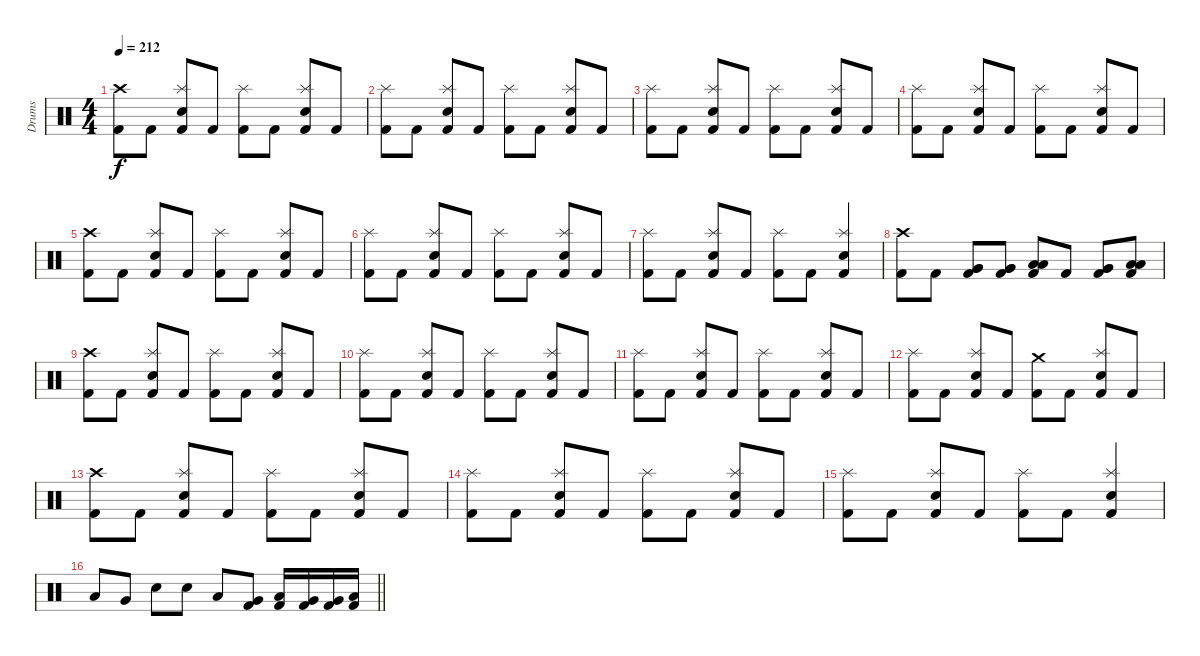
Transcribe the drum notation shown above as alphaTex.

\track ("Drums" "Drums") {instrument percussion}
\staff {score}
\articulation defaults
\ts (4 4)
\tempo 212
\clef neutral
\ks c
("Crash high (hit)" "Kick (hit) 2").8{dy f} "Kick (hit) 2".8 ("Splash (hit)" "Snare (hit) 2" "Kick (hit) 2").8 "Kick (hit) 2".8 ("Splash (hit)" "Kick (hit) 2").8 "Kick (hit) 2".8 ("Splash (hit)" "Snare (hit) 2" "Kick (hit) 2").8 "Kick (hit) 2".8 |
("Splash (hit)" "Kick (hit) 2").8 "Kick (hit) 2".8 ("Splash (hit)" "Snare (hit) 2" "Kick (hit) 2").8 "Kick (hit) 2".8 ("Splash (hit)" "Kick (hit) 2").8 "Kick (hit) 2".8 ("Splash (hit)" "Snare (hit) 2" "Kick (hit) 2").8 "Kick (hit) 2".8 |
("Splash (hit)" "Kick (hit) 2").8 "Kick (hit) 2".8 ("Splash (hit)" "Snare (hit) 2" "Kick (hit) 2").8 "Kick (hit) 2".8 ("Splash (hit)" "Kick (hit) 2").8 "Kick (hit) 2".8 ("Splash (hit)" "Snare (hit) 2" "Kick (hit) 2").8 "Kick (hit) 2".8 |
("Splash (hit)" "Kick (hit) 2").8 "Kick (hit) 2".8 ("Splash (hit)" "Snare (hit) 2" "Kick (hit) 2").8 "Kick (hit) 2".8 ("Splash (hit)" "Kick (hit) 2").8 "Kick (hit) 2".8 ("Splash (hit)" "Snare (hit) 2" "Kick (hit) 2").8 "Kick (hit) 2".8 |
("Crash high (hit)" "Kick (hit) 2").8 "Kick (hit) 2".8 ("Splash (hit)" "Snare (hit) 2" "Kick (hit) 2").8 "Kick (hit) 2".8 ("Splash (hit)" "Kick (hit) 2").8 "Kick (hit) 2".8 ("Splash (hit)" "Snare (hit) 2" "Kick (hit) 2").8 "Kick (hit) 2".8 |
("Splash (hit)" "Kick (hit) 2").8 "Kick (hit) 2".8 ("Splash (hit)" "Snare (hit) 2" "Kick (hit) 2").8 "Kick (hit) 2".8 ("Splash (hit)" "Kick (hit) 2").8 "Kick (hit) 2".8 ("Splash (hit)" "Snare (hit) 2" "Kick (hit) 2").8 "Kick (hit) 2".8 |
("Splash (hit)" "Kick (hit) 2").8 "Kick (hit) 2".8 ("Splash (hit)" "Snare (hit) 2" "Kick (hit) 2").8 "Kick (hit) 2".8 ("Splash (hit)" "Kick (hit) 2").8 "Kick (hit) 2".8 ("Splash (hit)" "Snare (hit) 2" "Kick (hit) 2").4 |
("Crash high (hit)" "Kick (hit) 2").8 "Kick (hit) 2".8 ("Very Low Tom (hit)" "Very Low Tom (hit)" "Kick (hit) 2").8 ("Very Low Tom (hit)" "Very Low Tom (hit)" "Kick (hit) 2").8 ("Low Tom (hit)" "Low Tom (hit)" "Kick (hit) 2").8 "Kick (hit) 2".8 ("Very Low Tom (hit)" "Very Low Tom (hit)" "Kick (hit) 2").8 ("Low Floor Tom (hit)" "Low Floor Tom (hit)" "Kick (hit) 2").8 |
("Crash high (hit)" "Kick (hit) 2").8 "Kick (hit) 2".8 ("Splash (hit)" "Snare (hit) 2" "Kick (hit) 2").8 "Kick (hit) 2".8 ("Splash (hit)" "Kick (hit) 2").8 "Kick (hit) 2".8 ("Splash (hit)" "Snare (hit) 2" "Kick (hit) 2").8 "Kick (hit) 2".8 |
("Splash (hit)" "Kick (hit) 2").8 "Kick (hit) 2".8 ("Splash (hit)" "Snare (hit) 2" "Kick (hit) 2").8 "Kick (hit) 2".8 ("Splash (hit)" "Kick (hit) 2").8 "Kick (hit) 2".8 ("Splash (hit)" "Snare (hit) 2" "Kick (hit) 2").8 "Kick (hit) 2".8 |
("Splash (hit)" "Kick (hit) 2").8 "Kick (hit) 2".8 ("Splash (hit)" "Snare (hit) 2" "Kick (hit) 2").8 "Kick (hit) 2".8 ("Splash (hit)" "Kick (hit) 2").8 "Kick (hit) 2".8 ("Splash (hit)" "Snare (hit) 2" "Kick (hit) 2").8 "Kick (hit) 2".8 |
("Splash (hit)" "Kick (hit) 2").8 "Kick (hit) 2".8 ("Splash (hit)" "Snare (hit) 2" "Kick (hit) 2").8 "Kick (hit) 2".8 ("Crash medium (hit)" "Kick (hit) 2").8 "Kick (hit) 2".8 ("Splash (hit)" "Snare (hit) 2" "Kick (hit) 2").8 "Kick (hit) 2".8 |
("Crash high (hit)" "Kick (hit) 2").8 "Kick (hit) 2".8 ("Splash (hit)" "Snare (hit) 2" "Kick (hit) 2").8 "Kick (hit) 2".8 ("Splash (hit)" "Kick (hit) 2").8 "Kick (hit) 2".8 ("Splash (hit)" "Snare (hit) 2" "Kick (hit) 2").8 "Kick (hit) 2".8 |
("Splash (hit)" "Kick (hit) 2").8 "Kick (hit) 2".8 ("Splash (hit)" "Snare (hit) 2" "Kick (hit) 2").8 "Kick (hit) 2".8 ("Splash (hit)" "Kick (hit) 2").8 "Kick (hit) 2".8 ("Splash (hit)" "Snare (hit) 2" "Kick (hit) 2").8 "Kick (hit) 2".8 |
("Splash (hit)" "Kick (hit) 2").8 "Kick (hit) 2".8 ("Splash (hit)" "Snare (hit) 2" "Kick (hit) 2").8 "Kick (hit) 2".8 ("Splash (hit)" "Kick (hit) 2").8 "Kick (hit) 2".8 ("Splash (hit)" "Snare (hit) 2" "Kick (hit) 2").4 |
\barLineRight lightlight "Low Tom (hit)".8 "Very Low Tom (hit)".8 "Snare (hit) 2".8 "Snare (hit) 2".8 "Low Tom (hit)".8
("Very Low Tom (hit)" "Kick (hit) 2").8 ("Low Tom (hit)" "Kick (hit) 2").16 ("Very Low Tom (hit)" "Kick (hit) 2").16 ("Very Low Tom (hit)" "Kick (hit) 2").16 ("Low Floor Tom (hit)" "Kick (hit) 2").16
